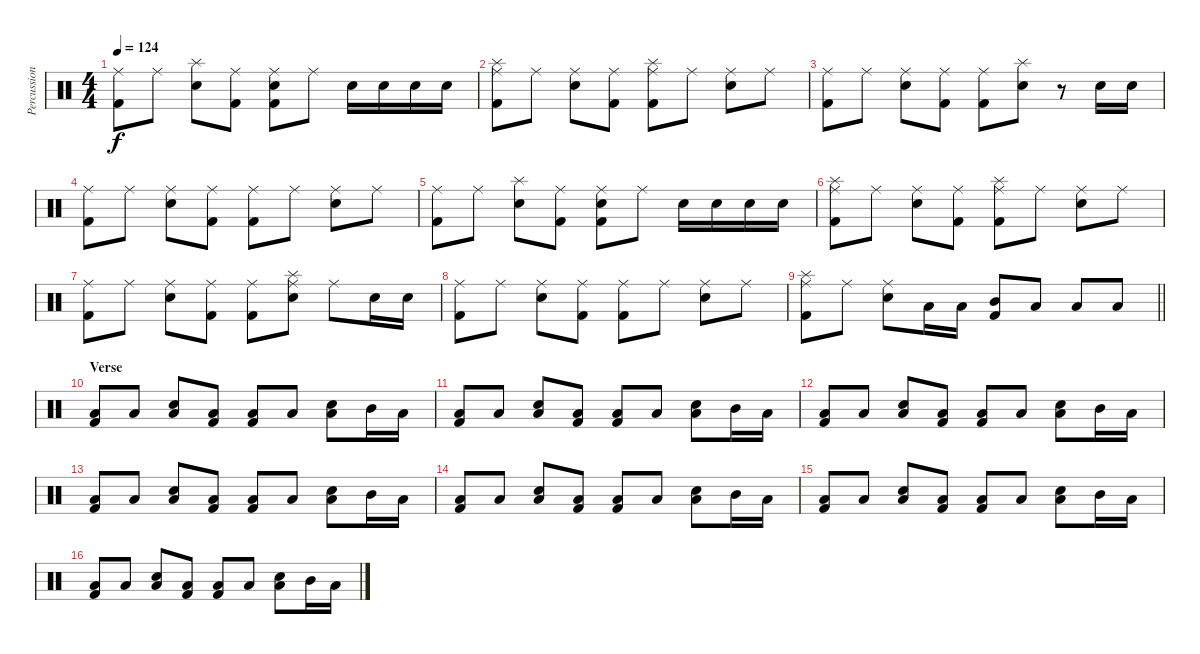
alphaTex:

\track ("Percussioni" "Percussion") {instrument percussion}
\staff {score}
\articulation defaults
\ts (4 4)
\tempo 124
\clef neutral
\ks c
("Ride (middle)" "Kick (hit) 2").8{dy f} "Ride (middle)".8 ("Splash (hit)" "Snare (hit) 2").8 ("Ride (middle)" "Kick (hit) 2").8 ("Ride (middle)" "Snare (hit) 2" "Kick (hit) 2").8 "Ride (middle)".8 "Snare (hit) 2".16 "Snare (hit) 2".16 "Snare (hit) 2".16 "Snare (hit) 2".16 |
("Ride (middle)" "Splash (hit)" "Kick (hit) 2").8 "Ride (middle)".8 ("Ride (middle)" "Snare (hit) 2").8 ("Ride (middle)" "Kick (hit) 2").8 ("Ride (middle)" "Splash (hit)" "Kick (hit) 2").8 "Ride (middle)".8 ("Ride (middle)" "Snare (hit) 2").8 "Ride (middle)".8 |
("Ride (middle)" "Kick (hit) 2").8 "Ride (middle)".8 ("Ride (middle)" "Snare (hit) 2").8 ("Ride (middle)" "Kick (hit) 2").8 ("Ride (middle)" "Kick (hit) 2").8 ("Splash (hit)" "Snare (hit) 2").8 r.8 "Snare (hit) 2".16 "Snare (hit) 2".16 |
("Ride (middle)" "Kick (hit) 2").8 "Ride (middle)".8 ("Ride (middle)" "Snare (hit) 2").8 ("Ride (middle)" "Kick (hit) 2").8 ("Ride (middle)" "Kick (hit) 2").8 "Ride (middle)".8 ("Ride (middle)" "Snare (hit) 2").8 "Ride (middle)".8 |
("Ride (middle)" "Kick (hit) 2").8 "Ride (middle)".8 ("Splash (hit)" "Snare (hit) 2").8 ("Ride (middle)" "Kick (hit) 2").8 ("Ride (middle)" "Snare (hit) 2" "Kick (hit) 2").8 "Ride (middle)".8 "Snare (hit) 2".16 "Snare (hit) 2".16 "Snare (hit) 2".16 "Snare (hit) 2".16 |
("Ride (middle)" "Splash (hit)" "Kick (hit) 2").8 "Ride (middle)".8 ("Ride (middle)" "Snare (hit) 2").8 ("Ride (middle)" "Kick (hit) 2").8 ("Ride (middle)" "Splash (hit)" "Kick (hit) 2").8 "Ride (middle)".8 ("Ride (middle)" "Snare (hit) 2").8 "Ride (middle)".8 |
("Ride (middle)" "Kick (hit) 2").8 "Ride (middle)".8 ("Ride (middle)" "Snare (hit) 2").8 ("Ride (middle)" "Kick (hit) 2").8 ("Ride (middle)" "Kick (hit) 2").8 ("Ride (middle)" "Splash (hit)" "Snare (hit) 2").8 "Ride (middle)".8 "Snare (hit) 2".16 "Snare (hit) 2".16 |
("Ride (middle)" "Kick (hit) 2").8 "Ride (middle)".8 ("Ride (middle)" "Snare (hit) 2").8 ("Ride (middle)" "Kick (hit) 2").8 ("Ride (middle)" "Kick (hit) 2").8 "Ride (middle)".8 ("Ride (middle)" "Snare (hit) 2").8 "Ride (middle)".8 |
\barLineRight lightlight
("Ride (middle)" "Splash (hit)" "Kick (hit) 2").8 "Ride (middle)".8 ("Ride (middle)" "Snare (hit) 2").8 "Low Floor Tom (hit)".16 "Low Tom (hit)".16 ("Mid Tom (hit)" "Kick (hit) 2").8 "Low Tom (hit)".8 "Low Tom (hit)".8 "Low Floor Tom (hit)".8 |
\section ("" "Verse")
("Low Floor Tom (hit)" "Kick (hit) 2").8 "Low Floor Tom (hit)".8 ("Snare (hit) 2" "Low Floor Tom (hit)").8 ("Low Floor Tom (hit)" "Kick (hit) 2").8 ("Low Floor Tom (hit)" "Kick (hit) 2").8 "Low Floor Tom (hit)".8 ("Snare (hit) 2" "Low Floor Tom (hit)").8 "Mid Tom (hit)".16 "Low Floor Tom (hit)".16 |
("Low Floor Tom (hit)" "Kick (hit) 2").8 "Low Floor Tom (hit)".8 ("Snare (hit) 2" "Low Floor Tom (hit)").8 ("Low Floor Tom (hit)" "Kick (hit) 2").8 ("Low Floor Tom (hit)" "Kick (hit) 2").8 "Low Floor Tom (hit)".8 ("Snare (hit) 2" "Low Floor Tom (hit)").8 "Mid Tom (hit)".16 "Low Floor Tom (hit)".16 |
("Low Floor Tom (hit)" "Kick (hit) 2").8 "Low Floor Tom (hit)".8 ("Snare (hit) 2" "Low Floor Tom (hit)").8 ("Low Floor Tom (hit)" "Kick (hit) 2").8 ("Low Floor Tom (hit)" "Kick (hit) 2").8 "Low Floor Tom (hit)".8 ("Snare (hit) 2" "Low Floor Tom (hit)").8 "Mid Tom (hit)".16 "Low Floor Tom (hit)".16 |
("Low Floor Tom (hit)" "Kick (hit) 2").8 "Low Floor Tom (hit)".8 ("Snare (hit) 2" "Low Floor Tom (hit)").8 ("Low Floor Tom (hit)" "Kick (hit) 2").8 ("Low Floor Tom (hit)" "Kick (hit) 2").8 "Low Floor Tom (hit)".8 ("Snare (hit) 2" "Low Floor Tom (hit)").8 "Mid Tom (hit)".16 "Low Floor Tom (hit)".16 |
("Low Floor Tom (hit)" "Kick (hit) 2").8 "Low Floor Tom (hit)".8 ("Snare (hit) 2" "Low Floor Tom (hit)").8 ("Low Floor Tom (hit)" "Kick (hit) 2").8 ("Low Floor Tom (hit)" "Kick (hit) 2").8 "Low Floor Tom (hit)".8 ("Snare (hit) 2" "Low Floor Tom (hit)").8 "Mid Tom (hit)".16 "Low Floor Tom (hit)".16 |
("Low Floor Tom (hit)" "Kick (hit) 2").8 "Low Floor Tom (hit)".8 ("Snare (hit) 2" "Low Floor Tom (hit)").8 ("Low Floor Tom (hit)" "Kick (hit) 2").8 ("Low Floor Tom (hit)" "Kick (hit) 2").8 "Low Floor Tom (hit)".8 ("Snare (hit) 2" "Low Floor Tom (hit)").8 "Mid Tom (hit)".16 "Low Floor Tom (hit)".16 |
("Low Floor Tom (hit)" "Kick (hit) 2").8 "Low Floor Tom (hit)".8 ("Snare (hit) 2" "Low Floor Tom (hit)").8 ("Low Floor Tom (hit)" "Kick (hit) 2").8 ("Low Floor Tom (hit)" "Kick (hit) 2").8 "Low Floor Tom (hit)".8 ("Snare (hit) 2" "Low Floor Tom (hit)").8 "Mid Tom (hit)".16 "Low Floor Tom (hit)".16
